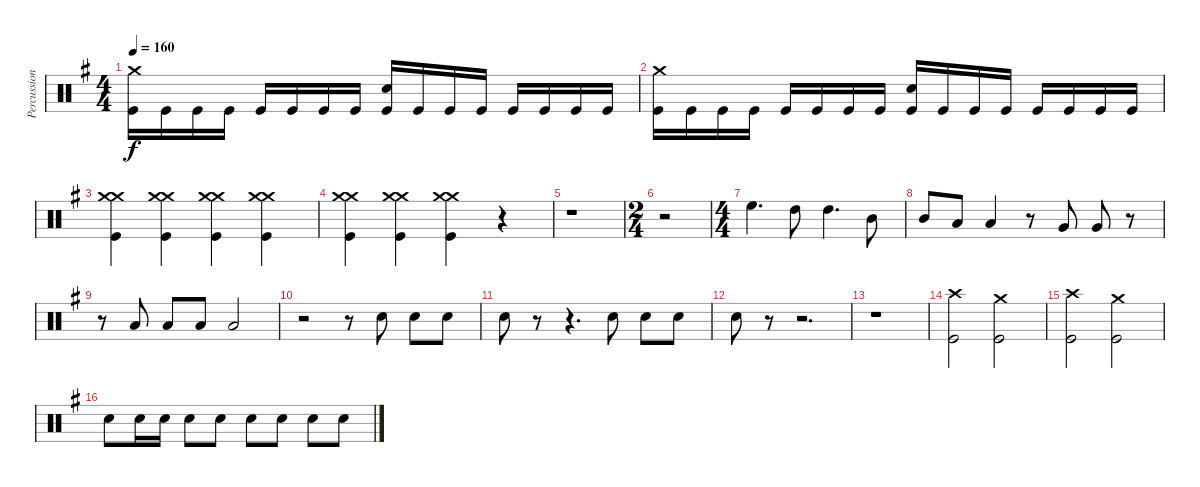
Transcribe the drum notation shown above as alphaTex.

\track ("Percussions" "Percussion") {instrument percussion}
\staff {score}
\articulation defaults
\ts (4 4)
\tempo 160
\clef neutral
\ks g
("Kick (hit)" "Crash medium (hit)").16{dy f} "Kick (hit)".16 "Kick (hit)".16 "Kick (hit)".16 "Kick (hit)".16 "Kick (hit)".16 "Kick (hit)".16 "Kick (hit)".16 ("Kick (hit)" "Electric Snare (hit)").16 "Kick (hit)".16 "Kick (hit)".16 "Kick (hit)".16 "Kick (hit)".16 "Kick (hit)".16 "Kick (hit)".16 "Kick (hit)".16 |
("Kick (hit)" "Crash medium (hit)").16 "Kick (hit)".16 "Kick (hit)".16 "Kick (hit)".16 "Kick (hit)".16 "Kick (hit)".16 "Kick (hit)".16 "Kick (hit)".16 ("Kick (hit)" "Electric Snare (hit)").16 "Kick (hit)".16 "Kick (hit)".16 "Kick (hit)".16 "Kick (hit)".16 "Kick (hit)".16 "Kick (hit)".16 "Kick (hit)".16 |
("Kick (hit)" "Crash medium (hit)" "Crash medium (hit)").4 ("Kick (hit)" "Crash medium (hit)" "Crash medium (hit)").4 ("Kick (hit)" "Crash medium (hit)" "Crash medium (hit)").4 ("Kick (hit)" "Crash medium (hit)" "Crash medium (hit)").4 |
("Kick (hit)" "Crash medium (hit)" "Crash medium (hit)").4 ("Kick (hit)" "Crash medium (hit)" "Crash medium (hit)").4 ("Kick (hit)" "Crash medium (hit)" "Crash medium (hit)").4 r.4 |
r.1 |
\ts (2 4)
r.2 |
\ts (4 4)
"High Floor Tom (hit)".4{d} "High Tom (hit)".8 "High Tom (hit)".4{d} "Mid Tom (hit)".8 |
"Mid Tom (hit)".8 "Low Tom (hit)".8 "Low Tom (hit)".4 r.8 "Very Low Tom (hit)".8 "Very Low Tom (hit)".8 r.8 |
r.8 "Low Floor Tom (hit)".8 "Low Floor Tom (hit)".8 "Low Floor Tom (hit)".8 "Low Floor Tom (hit)".2 |
r.2 r.8 "Electric Snare (hit)".8 "Electric Snare (hit)".8 "Electric Snare (hit)".8 |
"Electric Snare (hit)".8 r.8 r.4{d} "Electric Snare (hit)".8 "Electric Snare (hit)".8 "Electric Snare (hit)".8 |
"Electric Snare (hit)".8 r.8 r.2{d} |
r.1 |
("Kick (hit)" "Crash high (hit)").2 ("Kick (hit)" "Crash medium (hit)").2 |
("Kick (hit)" "Crash high (hit)").2 ("Kick (hit)" "Crash medium (hit)").2 |
"Electric Snare (hit)".8 "Electric Snare (hit)".16 "Electric Snare (hit)".16 "Electric Snare (hit)".8 "Electric Snare (hit)".8 "Electric Snare (hit)".8 "Electric Snare (hit)".8 "Electric Snare (hit)".8 "Electric Snare (hit)".8
